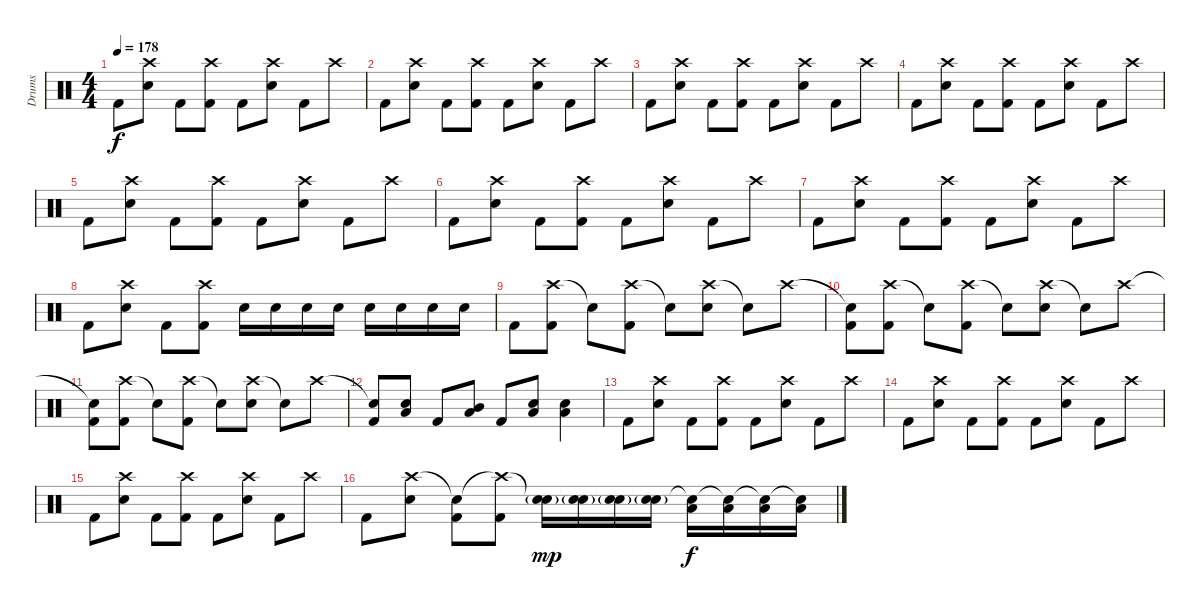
\track ("Drums" "Drums") {instrument percussion}
\staff {score}
\articulation defaults
\ts (4 4)
\tempo 178
\clef neutral
\ks c "Kick (hit) 2".8{dy f}
("Crash high (hit)" "Electric Snare (hit)").8 "Kick (hit) 2".8 ("Crash high (hit)" "Kick (hit) 2").8 "Kick (hit) 2".8 ("Crash high (hit)" "Electric Snare (hit)").8 "Kick (hit) 2".8 "Crash high (hit)".8 |
"Kick (hit) 2".8 ("Crash high (hit)" "Electric Snare (hit)").8 "Kick (hit) 2".8 ("Crash high (hit)" "Kick (hit) 2").8 "Kick (hit) 2".8 ("Crash high (hit)" "Electric Snare (hit)").8 "Kick (hit) 2".8 "Crash high (hit)".8 |
"Kick (hit) 2".8 ("Crash high (hit)" "Electric Snare (hit)").8 "Kick (hit) 2".8 ("Crash high (hit)" "Kick (hit) 2").8 "Kick (hit) 2".8 ("Crash high (hit)" "Electric Snare (hit)").8 "Kick (hit) 2".8 "Crash high (hit)".8 |
"Kick (hit) 2".8 ("Crash high (hit)" "Electric Snare (hit)").8 "Kick (hit) 2".8 ("Crash high (hit)" "Kick (hit) 2").8 "Kick (hit) 2".8 ("Crash high (hit)" "Electric Snare (hit)").8 "Kick (hit) 2".8 "Crash high (hit)".8 |
"Kick (hit) 2".8 ("Crash high (hit)" "Electric Snare (hit)").8 "Kick (hit) 2".8 ("Crash high (hit)" "Kick (hit) 2").8 "Kick (hit) 2".8 ("Crash high (hit)" "Electric Snare (hit)").8 "Kick (hit) 2".8 "Crash high (hit)".8 |
"Kick (hit) 2".8 ("Crash high (hit)" "Electric Snare (hit)").8 "Kick (hit) 2".8 ("Crash high (hit)" "Kick (hit) 2").8 "Kick (hit) 2".8 ("Crash high (hit)" "Electric Snare (hit)").8 "Kick (hit) 2".8 "Crash high (hit)".8 |
"Kick (hit) 2".8 ("Crash high (hit)" "Electric Snare (hit)").8 "Kick (hit) 2".8 ("Crash high (hit)" "Kick (hit) 2").8 "Kick (hit) 2".8 ("Crash high (hit)" "Electric Snare (hit)").8 "Kick (hit) 2".8 "Crash high (hit)".8 |
"Kick (hit) 2".8 ("Crash high (hit)" "Electric Snare (hit)").8 "Kick (hit) 2".8 ("Crash high (hit)" "Kick (hit) 2").8 "Electric Snare (hit)".16 "Electric Snare (hit)".16 "Electric Snare (hit)".16 "Electric Snare (hit)".16 "Electric Snare (hit)".16 "Electric Snare (hit)".16 "Electric Snare (hit)".16 "Electric Snare (hit)".16 |
"Kick (hit) 2".8 ("Crash high (hit)" "Kick (hit) 2").8 "Snare (hit)"{t}.8 ("Crash high (hit)" "Kick (hit) 2").8 "Snare (hit)"{t}.8 ("Crash high (hit)" "Electric Snare (hit)").8 "Snare (hit)"{t}.8 "Crash high (hit)".8 |
("Snare (hit)"{t} "Kick (hit) 2").8 ("Crash high (hit)" "Kick (hit) 2").8 "Snare (hit)"{t}.8 ("Crash high (hit)" "Kick (hit) 2").8 "Snare (hit)"{t}.8 ("Crash high (hit)" "Electric Snare (hit)").8 "Snare (hit)"{t}.8 "Crash high (hit)".8 |
("Snare (hit)"{t} "Kick (hit) 2").8 ("Crash high (hit)" "Kick (hit) 2").8 "Snare (hit)"{t}.8 ("Crash high (hit)" "Kick (hit) 2").8 "Snare (hit)"{t}.8 ("Crash high (hit)" "Electric Snare (hit)").8 "Snare (hit)"{t}.8 "Crash high (hit)".8 |
("Snare (hit)"{t} "Kick (hit) 2").8 ("Low Floor Tom (hit)" "Electric Snare (hit)").8 "Kick (hit) 2".8 ("Mid Tom (hit)" "Low Tom (hit)").8 "Kick (hit) 2".8 ("Low Floor Tom (hit)" "Electric Snare (hit)").8 ("Low Floor Tom (hit)" "Electric Snare (hit)").4 |
"Kick (hit) 2".8 ("Crash high (hit)" "Electric Snare (hit)").8 "Kick (hit) 2".8 ("Crash high (hit)" "Kick (hit) 2").8 "Kick (hit) 2".8 ("Crash high (hit)" "Electric Snare (hit)").8 "Kick (hit) 2".8 "Crash high (hit)".8 |
"Kick (hit) 2".8 ("Crash high (hit)" "Electric Snare (hit)").8 "Kick (hit) 2".8 ("Crash high (hit)" "Kick (hit) 2").8 "Kick (hit) 2".8 ("Crash high (hit)" "Electric Snare (hit)").8 "Kick (hit) 2".8 "Crash high (hit)".8 |
"Kick (hit) 2".8 ("Crash high (hit)" "Electric Snare (hit)").8 "Kick (hit) 2".8 ("Crash high (hit)" "Kick (hit) 2").8 "Kick (hit) 2".8 ("Crash high (hit)" "Electric Snare (hit)").8 "Kick (hit) 2".8 "Crash high (hit)".8 |
"Kick (hit) 2".8 ("Crash high (hit)" "Electric Snare (hit)").8 ("Snare (hit)"{t} "Kick (hit) 2").8 ("Crash high (hit)"{t} "Kick (hit) 2").8 ("Snare (hit)"{t} "Electric Snare (hit)"{g}).16{dy mp} ("Snare (hit)"{t} "Electric Snare (hit)"{g}).16 ("Snare (hit)"{t} "Electric Snare (hit)"{g}).16 ("Snare (hit)"{t} "Electric Snare (hit)"{g}).16 ("Snare (hit)"{t} "Low Tom (hit)").16{dy f} ("Snare (hit)"{t} "Low Tom (hit)").16 ("Snare (hit)"{t} "Low Tom (hit)").16 ("Snare (hit)"{t} "Low Tom (hit)").16
